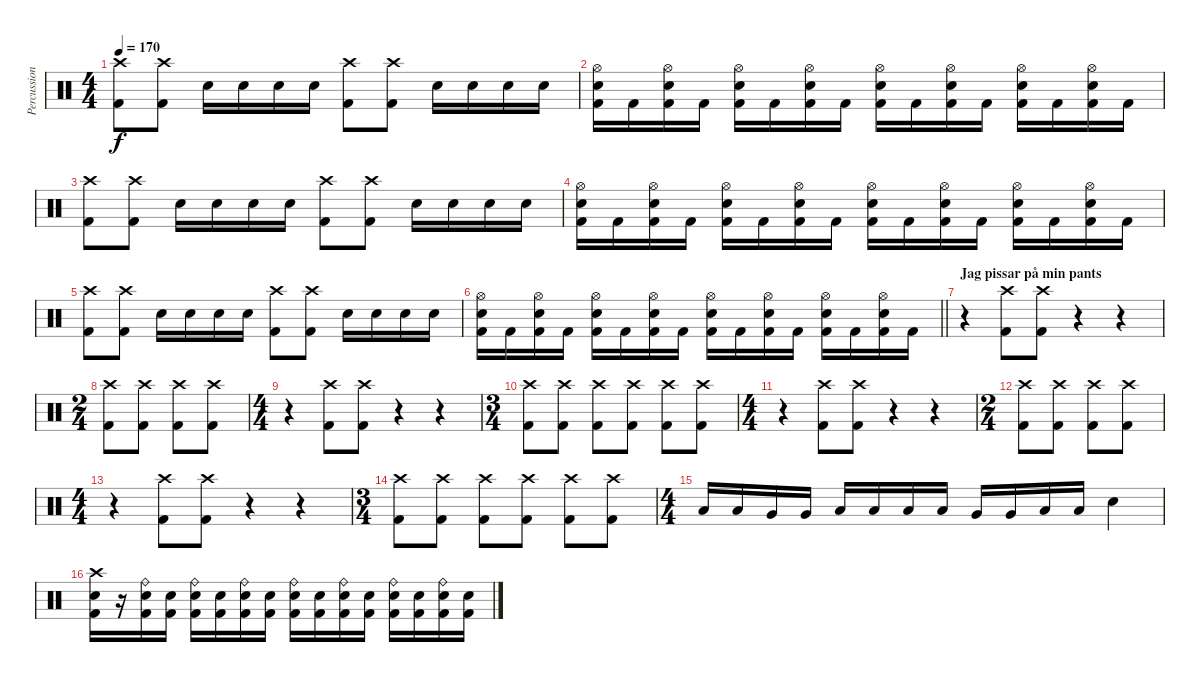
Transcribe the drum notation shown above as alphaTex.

\track ("Percussion" "Percussion") {instrument percussion}
\staff {score}
\articulation defaults
\ts (4 4)
\tempo 170
\clef neutral
\ks c
("Crash high (hit)" "Kick (hit) 2").8{dy f} ("Crash high (hit)" "Kick (hit) 2").8 "Electric Snare (hit)".16 "Electric Snare (hit)".16 "Electric Snare (hit)".16 "Electric Snare (hit)".16 ("Crash high (hit)" "Kick (hit) 2").8 ("Crash high (hit)" "Kick (hit) 2").8 "Electric Snare (hit)".16 "Electric Snare (hit)".16 "Electric Snare (hit)".16 "Electric Snare (hit)".16 |
("Hi-Hat (open)" "Electric Snare (hit)" "Kick (hit) 2").16 "Kick (hit) 2".16 ("Hi-Hat (open)" "Electric Snare (hit)" "Kick (hit) 2").16 "Kick (hit) 2".16 ("Hi-Hat (open)" "Electric Snare (hit)" "Kick (hit) 2").16 "Kick (hit) 2".16 ("Hi-Hat (open)" "Electric Snare (hit)" "Kick (hit) 2").16 "Kick (hit) 2".16 ("Hi-Hat (open)" "Electric Snare (hit)" "Kick (hit) 2").16 "Kick (hit) 2".16 ("Hi-Hat (open)" "Electric Snare (hit)" "Kick (hit) 2").16 "Kick (hit) 2".16 ("Hi-Hat (open)" "Electric Snare (hit)" "Kick (hit) 2").16 "Kick (hit) 2".16 ("Hi-Hat (open)" "Electric Snare (hit)" "Kick (hit) 2").16 "Kick (hit) 2".16 |
("Crash high (hit)" "Kick (hit) 2").8 ("Crash high (hit)" "Kick (hit) 2").8 "Electric Snare (hit)".16 "Electric Snare (hit)".16 "Electric Snare (hit)".16 "Electric Snare (hit)".16 ("Crash high (hit)" "Kick (hit) 2").8 ("Crash high (hit)" "Kick (hit) 2").8 "Electric Snare (hit)".16 "Electric Snare (hit)".16 "Electric Snare (hit)".16 "Electric Snare (hit)".16 |
("Hi-Hat (open)" "Electric Snare (hit)" "Kick (hit) 2").16 "Kick (hit) 2".16 ("Hi-Hat (open)" "Electric Snare (hit)" "Kick (hit) 2").16 "Kick (hit) 2".16 ("Hi-Hat (open)" "Electric Snare (hit)" "Kick (hit) 2").16 "Kick (hit) 2".16 ("Hi-Hat (open)" "Electric Snare (hit)" "Kick (hit) 2").16 "Kick (hit) 2".16 ("Hi-Hat (open)" "Electric Snare (hit)" "Kick (hit) 2").16 "Kick (hit) 2".16 ("Hi-Hat (open)" "Electric Snare (hit)" "Kick (hit) 2").16 "Kick (hit) 2".16 ("Hi-Hat (open)" "Electric Snare (hit)" "Kick (hit) 2").16 "Kick (hit) 2".16 ("Hi-Hat (open)" "Electric Snare (hit)" "Kick (hit) 2").16 "Kick (hit) 2".16 |
("Crash high (hit)" "Kick (hit) 2").8 ("Crash high (hit)" "Kick (hit) 2").8 "Electric Snare (hit)".16 "Electric Snare (hit)".16 "Electric Snare (hit)".16 "Electric Snare (hit)".16 ("Crash high (hit)" "Kick (hit) 2").8 ("Crash high (hit)" "Kick (hit) 2").8 "Electric Snare (hit)".16 "Electric Snare (hit)".16 "Electric Snare (hit)".16 "Electric Snare (hit)".16 |
\barLineRight lightlight
("Hi-Hat (open)" "Electric Snare (hit)" "Kick (hit) 2").16 "Kick (hit) 2".16 ("Hi-Hat (open)" "Electric Snare (hit)" "Kick (hit) 2").16 "Kick (hit) 2".16 ("Hi-Hat (open)" "Electric Snare (hit)" "Kick (hit) 2").16 "Kick (hit) 2".16 ("Hi-Hat (open)" "Electric Snare (hit)" "Kick (hit) 2").16 "Kick (hit) 2".16 ("Hi-Hat (open)" "Electric Snare (hit)" "Kick (hit) 2").16 "Kick (hit) 2".16 ("Hi-Hat (open)" "Electric Snare (hit)" "Kick (hit) 2").16 "Kick (hit) 2".16 ("Hi-Hat (open)" "Electric Snare (hit)" "Kick (hit) 2").16 "Kick (hit) 2".16 ("Hi-Hat (open)" "Electric Snare (hit)" "Kick (hit) 2").16 "Kick (hit) 2".16 |
\section ("" "Jag pissar på min pants")
r.4 ("Crash high (hit)" "Kick (hit) 2").8 ("Crash high (hit)" "Kick (hit) 2").8 r.4 r.4 |
\ts (2 4)
("Crash high (hit)" "Kick (hit) 2").8 ("Crash high (hit)" "Kick (hit) 2").8 ("Crash high (hit)" "Kick (hit) 2").8 ("Crash high (hit)" "Kick (hit) 2").8 |
\ts (4 4)
r.4 ("Crash high (hit)" "Kick (hit) 2").8 ("Crash high (hit)" "Kick (hit) 2").8 r.4 r.4 |
\ts (3 4)
("Crash high (hit)" "Kick (hit) 2").8 ("Crash high (hit)" "Kick (hit) 2").8 ("Crash high (hit)" "Kick (hit) 2").8 ("Crash high (hit)" "Kick (hit) 2").8 ("Crash high (hit)" "Kick (hit) 2").8 ("Crash high (hit)" "Kick (hit) 2").8 |
\ts (4 4)
r.4 ("Crash high (hit)" "Kick (hit) 2").8 ("Crash high (hit)" "Kick (hit) 2").8 r.4 r.4 |
\ts (2 4)
("Crash high (hit)" "Kick (hit) 2").8 ("Crash high (hit)" "Kick (hit) 2").8 ("Crash high (hit)" "Kick (hit) 2").8 ("Crash high (hit)" "Kick (hit) 2").8 |
\ts (4 4)
r.4 ("Crash high (hit)" "Kick (hit) 2").8 ("Crash high (hit)" "Kick (hit) 2").8 r.4 r.4 |
\ts (3 4)
("Crash high (hit)" "Kick (hit) 2").8 ("Crash high (hit)" "Kick (hit) 2").8 ("Crash high (hit)" "Kick (hit) 2").8 ("Crash high (hit)" "Kick (hit) 2").8 ("Crash high (hit)" "Kick (hit) 2").8 ("Crash high (hit)" "Kick (hit) 2").8 |
\ts (4 4)
"Low Tom (hit)".16 "Low Tom (hit)".16 "Very Low Tom (hit)".16 "Very Low Tom (hit)".16 "Low Floor Tom (hit)".16 "Low Floor Tom (hit)".16 "Low Tom (hit)".16 "Low Tom (hit)".16 "Very Low Tom (hit)".16 "Very Low Tom (hit)".16 "Low Floor Tom (hit)".16 "Low Floor Tom (hit)".16 "Electric Snare (hit)".4 |
("Crash high (hit)" "Electric Snare (hit)" "Kick (hit) 2").16 r.16 ("Ride (bell)" "Electric Snare (hit)" "Kick (hit) 2").16 ("Electric Snare (hit)" "Kick (hit) 2").16 ("Ride (bell)" "Electric Snare (hit)" "Kick (hit) 2").16 ("Electric Snare (hit)" "Kick (hit) 2").16 ("Ride (bell)" "Electric Snare (hit)" "Kick (hit) 2").16 ("Electric Snare (hit)" "Kick (hit) 2").16 ("Ride (bell)" "Electric Snare (hit)" "Kick (hit) 2").16 ("Electric Snare (hit)" "Kick (hit) 2").16 ("Ride (bell)" "Electric Snare (hit)" "Kick (hit) 2").16 ("Electric Snare (hit)" "Kick (hit) 2").16 ("Ride (bell)" "Electric Snare (hit)" "Kick (hit) 2").16 ("Electric Snare (hit)" "Kick (hit) 2").16 ("Ride (bell)" "Electric Snare (hit)" "Kick (hit) 2").16 ("Electric Snare (hit)" "Kick (hit) 2").16
